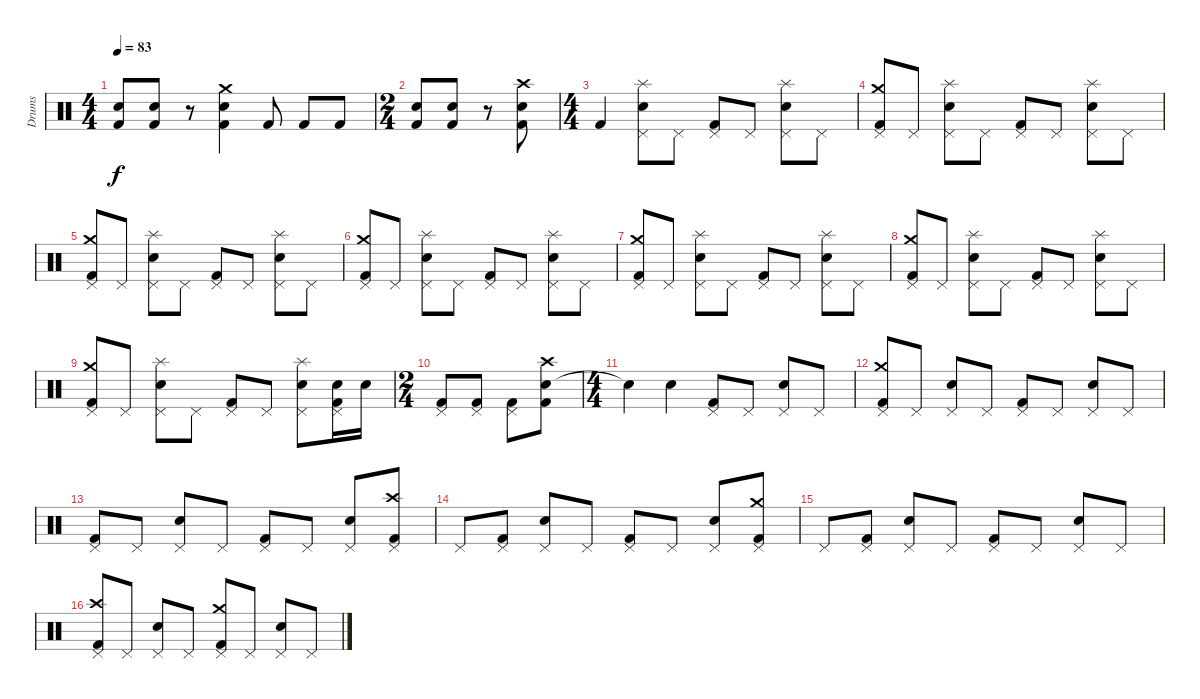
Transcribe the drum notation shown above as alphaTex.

\track ("Drums" "Drums") {instrument percussion}
\staff {score}
\articulation defaults
\ts (4 4)
\tempo 83
\clef neutral
\ks c
("Snare (hit) 2" "Kick (hit) 2").8{dy f} ("Snare (hit) 2" "Kick (hit) 2").8 r.8 ("Snare (hit) 2" "Crash medium (hit)" "Kick (hit) 2").4 "Kick (hit) 2".8 "Kick (hit) 2".8 "Kick (hit) 2".8 |
\ts (2 4)
("Snare (hit) 2" "Kick (hit) 2").8 ("Snare (hit) 2" "Kick (hit) 2").8 r.8 ("Crash high (hit)" "Kick (hit) 2" "Snare (hit) 2").8 |
\ts (4 4)
"Kick (hit) 2".4 ("Pedal Hi-Hat (hit)" "Splash (hit)" "Snare (hit) 2").8 "Pedal Hi-Hat (hit)".8 ("Pedal Hi-Hat (hit)" "Kick (hit) 2").8 "Pedal Hi-Hat (hit)".8 ("Pedal Hi-Hat (hit)" "Splash (hit)" "Snare (hit) 2").8 "Pedal Hi-Hat (hit)".8 |
("Crash medium (hit)" "Pedal Hi-Hat (hit)" "Kick (hit) 2").8 "Pedal Hi-Hat (hit)".8 ("Pedal Hi-Hat (hit)" "Splash (hit)" "Snare (hit) 2").8 "Pedal Hi-Hat (hit)".8 ("Pedal Hi-Hat (hit)" "Kick (hit) 2").8 "Pedal Hi-Hat (hit)".8 ("Pedal Hi-Hat (hit)" "Splash (hit)" "Snare (hit) 2").8 "Pedal Hi-Hat (hit)".8 |
("Crash medium (hit)" "Pedal Hi-Hat (hit)" "Kick (hit) 2").8 "Pedal Hi-Hat (hit)".8 ("Pedal Hi-Hat (hit)" "Splash (hit)" "Snare (hit) 2").8 "Pedal Hi-Hat (hit)".8 ("Kick (hit) 2" "Pedal Hi-Hat (hit)").8 "Pedal Hi-Hat (hit)".8 ("Pedal Hi-Hat (hit)" "Splash (hit)" "Snare (hit) 2").8 "Pedal Hi-Hat (hit)".8 |
("Pedal Hi-Hat (hit)" "Crash medium (hit)" "Kick (hit) 2").8 "Pedal Hi-Hat (hit)".8 ("Pedal Hi-Hat (hit)" "Splash (hit)" "Snare (hit) 2").8 "Pedal Hi-Hat (hit)".8 ("Pedal Hi-Hat (hit)" "Kick (hit) 2").8 "Pedal Hi-Hat (hit)".8 ("Pedal Hi-Hat (hit)" "Splash (hit)" "Snare (hit) 2").8 "Pedal Hi-Hat (hit)".8 |
("Pedal Hi-Hat (hit)" "Crash medium (hit)" "Kick (hit) 2").8 "Pedal Hi-Hat (hit)".8 ("Pedal Hi-Hat (hit)" "Splash (hit)" "Snare (hit) 2").8 "Pedal Hi-Hat (hit)".8 ("Pedal Hi-Hat (hit)" "Kick (hit) 2").8 "Pedal Hi-Hat (hit)".8 ("Pedal Hi-Hat (hit)" "Splash (hit)" "Snare (hit) 2").8 "Pedal Hi-Hat (hit)".8 |
("Pedal Hi-Hat (hit)" "Crash medium (hit)" "Kick (hit) 2").8 "Pedal Hi-Hat (hit)".8 ("Pedal Hi-Hat (hit)" "Splash (hit)" "Snare (hit) 2").8 "Pedal Hi-Hat (hit)".8 ("Pedal Hi-Hat (hit)" "Kick (hit) 2").8 "Pedal Hi-Hat (hit)".8 ("Pedal Hi-Hat (hit)" "Splash (hit)" "Snare (hit) 2").8 "Pedal Hi-Hat (hit)".8 |
("Pedal Hi-Hat (hit)" "Crash medium (hit)" "Kick (hit) 2").8 "Pedal Hi-Hat (hit)".8 ("Pedal Hi-Hat (hit)" "Splash (hit)" "Snare (hit) 2").8 "Pedal Hi-Hat (hit)".8 ("Kick (hit) 2" "Pedal Hi-Hat (hit)").8 "Pedal Hi-Hat (hit)".8 ("Pedal Hi-Hat (hit)" "Splash (hit)" "Snare (hit) 2").8 ("Kick (hit) 2" "Snare (hit) 2" "Pedal Hi-Hat (hit)").16 "Snare (hit) 2".16 |
\ts (2 4)
("Pedal Hi-Hat (hit)" "Kick (hit) 2").8 ("Pedal Hi-Hat (hit)" "Kick (hit) 2").8 ("Pedal Hi-Hat (hit)" "Kick (hit) 2").8 ("Snare (hit) 2" "Kick (hit) 2" "Crash high (hit)").8 |
\ts (4 4)
"Snare (hit)"{t}.4 "Snare (hit) 2".4 ("Pedal Hi-Hat (hit)" "Kick (hit) 2").8 "Pedal Hi-Hat (hit)".8 ("Pedal Hi-Hat (hit)" "Snare (hit) 2").8 "Pedal Hi-Hat (hit)".8 |
("Crash medium (hit)" "Kick (hit) 2" "Pedal Hi-Hat (hit)").8 "Pedal Hi-Hat (hit)".8 ("Pedal Hi-Hat (hit)" "Snare (hit) 2").8 "Pedal Hi-Hat (hit)".8 ("Pedal Hi-Hat (hit)" "Kick (hit) 2").8 "Pedal Hi-Hat (hit)".8 ("Pedal Hi-Hat (hit)" "Snare (hit) 2").8 "Pedal Hi-Hat (hit)".8 |
("Pedal Hi-Hat (hit)" "Kick (hit) 2").8 "Pedal Hi-Hat (hit)".8 ("Pedal Hi-Hat (hit)" "Snare (hit) 2").8 "Pedal Hi-Hat (hit)".8 ("Pedal Hi-Hat (hit)" "Kick (hit) 2").8 "Pedal Hi-Hat (hit)".8 ("Pedal Hi-Hat (hit)" "Snare (hit) 2").8 ("Pedal Hi-Hat (hit)" "Kick (hit) 2" "Crash high (hit)").8 |
"Pedal Hi-Hat (hit)".8 ("Pedal Hi-Hat (hit)" "Kick (hit) 2").8 ("Pedal Hi-Hat (hit)" "Snare (hit) 2").8 "Pedal Hi-Hat (hit)".8 ("Pedal Hi-Hat (hit)" "Kick (hit) 2").8 "Pedal Hi-Hat (hit)".8 ("Pedal Hi-Hat (hit)" "Snare (hit) 2").8 ("Pedal Hi-Hat (hit)" "Kick (hit) 2" "Crash medium (hit)").8 |
"Pedal Hi-Hat (hit)".8 ("Pedal Hi-Hat (hit)" "Kick (hit) 2").8 ("Pedal Hi-Hat (hit)" "Snare (hit) 2").8 "Pedal Hi-Hat (hit)".8 ("Pedal Hi-Hat (hit)" "Kick (hit) 2").8 "Pedal Hi-Hat (hit)".8 ("Pedal Hi-Hat (hit)" "Snare (hit) 2").8 "Pedal Hi-Hat (hit)".8 |
("Pedal Hi-Hat (hit)" "Kick (hit) 2" "Crash high (hit)").8 "Pedal Hi-Hat (hit)".8 ("Pedal Hi-Hat (hit)" "Snare (hit) 2").8 "Pedal Hi-Hat (hit)".8 ("Pedal Hi-Hat (hit)" "Kick (hit) 2" "Crash medium (hit)").8 "Pedal Hi-Hat (hit)".8 ("Pedal Hi-Hat (hit)" "Snare (hit) 2").8 "Pedal Hi-Hat (hit)".8
